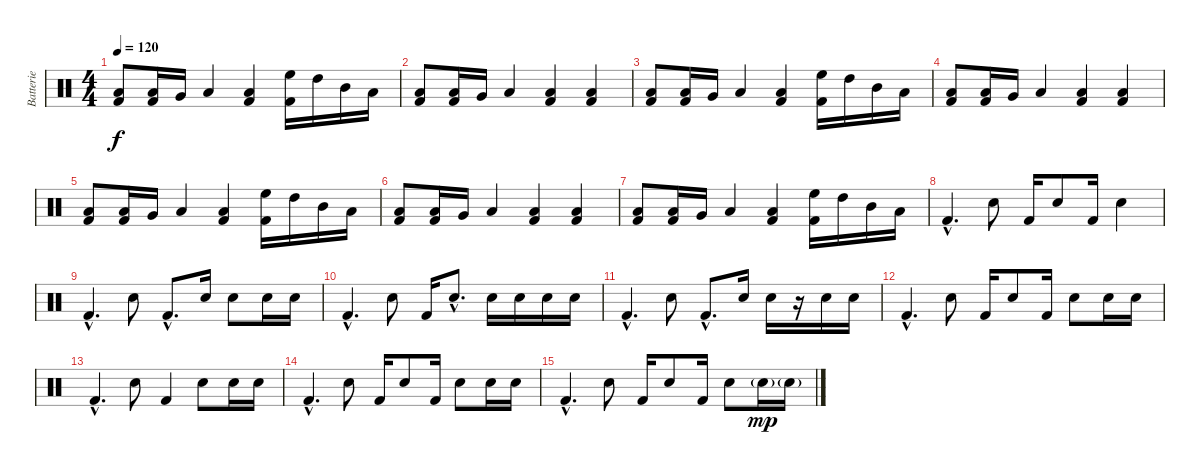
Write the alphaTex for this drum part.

\track ("Batterie" "Batterie") {instrument percussion}
\staff {score}
\articulation defaults
\ts (4 4)
\tempo 120
\clef neutral
\ks c
("Low Floor Tom (hit)" "Kick (hit) 2").8{dy f} ("Low Floor Tom (hit)" "Kick (hit) 2").16 "Very Low Tom (hit)".16 "Low Floor Tom (hit)".4 ("Low Floor Tom (hit)" "Kick (hit) 2").4 ("High Floor Tom (hit)" "Kick (hit) 2").16 "High Tom (hit)".16 "Mid Tom (hit)".16 "Low Tom (hit)".16 |
("Low Floor Tom (hit)" "Kick (hit) 2").8 ("Low Floor Tom (hit)" "Kick (hit) 2").16 "Very Low Tom (hit)".16 "Low Floor Tom (hit)".4 ("Low Floor Tom (hit)" "Kick (hit) 2").4 ("Low Floor Tom (hit)" "Kick (hit) 2").4 |
("Low Floor Tom (hit)" "Kick (hit) 2").8 ("Low Floor Tom (hit)" "Kick (hit) 2").16 "Very Low Tom (hit)".16 "Low Floor Tom (hit)".4 ("Low Floor Tom (hit)" "Kick (hit) 2").4 ("High Floor Tom (hit)" "Kick (hit) 2").16 "High Tom (hit)".16 "Mid Tom (hit)".16 "Low Tom (hit)".16 |
("Low Floor Tom (hit)" "Kick (hit) 2").8 ("Low Floor Tom (hit)" "Kick (hit) 2").16 "Very Low Tom (hit)".16 "Low Floor Tom (hit)".4 ("Low Floor Tom (hit)" "Kick (hit) 2").4 ("Low Floor Tom (hit)" "Kick (hit) 2").4 |
("Low Floor Tom (hit)" "Kick (hit) 2").8 ("Low Floor Tom (hit)" "Kick (hit) 2").16 "Very Low Tom (hit)".16 "Low Floor Tom (hit)".4 ("Low Floor Tom (hit)" "Kick (hit) 2").4 ("High Floor Tom (hit)" "Kick (hit) 2").16 "High Tom (hit)".16 "Mid Tom (hit)".16 "Low Tom (hit)".16 |
("Low Floor Tom (hit)" "Kick (hit) 2").8 ("Low Floor Tom (hit)" "Kick (hit) 2").16 "Very Low Tom (hit)".16 "Low Floor Tom (hit)".4 ("Low Floor Tom (hit)" "Kick (hit) 2").4 ("Low Floor Tom (hit)" "Kick (hit) 2").4 |
("Low Floor Tom (hit)" "Kick (hit) 2").8 ("Low Floor Tom (hit)" "Kick (hit) 2").16 "Very Low Tom (hit)".16 "Low Floor Tom (hit)".4 ("Low Floor Tom (hit)" "Kick (hit) 2").4 ("High Floor Tom (hit)" "Kick (hit) 2").16 "High Tom (hit)".16 "Mid Tom (hit)".16 "Low Tom (hit)".16 |
"Kick (hit) 2"{hac}.4{d} "Electric Snare (hit)".8 "Kick (hit) 2".16 "Electric Snare (hit)".8 "Kick (hit) 2".16 "Electric Snare (hit)".4 |
"Kick (hit) 2"{hac}.4{d} "Electric Snare (hit)".8 "Kick (hit) 2"{hac}.8{d} "Electric Snare (hit)".16 "Electric Snare (hit)".8 "Electric Snare (hit)".16 "Electric Snare (hit)".16 |
"Kick (hit) 2"{hac}.4{d} "Electric Snare (hit)".8 "Kick (hit) 2".16 "Electric Snare (hit)"{hac}.8{d} "Electric Snare (hit)".16 "Electric Snare (hit)".16 "Electric Snare (hit)".16 "Electric Snare (hit)".16 |
"Kick (hit) 2"{hac}.4{d} "Electric Snare (hit)".8 "Kick (hit) 2"{hac}.8{d} "Electric Snare (hit)".16 "Electric Snare (hit)".16 r.16 "Electric Snare (hit)".16 "Electric Snare (hit)".16 |
"Kick (hit) 2"{hac}.4{d} "Electric Snare (hit)".8 "Kick (hit) 2".16 "Electric Snare (hit)".8 "Kick (hit) 2".16 "Electric Snare (hit)".8 "Electric Snare (hit)".16 "Electric Snare (hit)".16 |
"Kick (hit) 2"{hac}.4{d} "Electric Snare (hit)".8 "Kick (hit) 2".4 "Electric Snare (hit)".8 "Electric Snare (hit)".16 "Electric Snare (hit)".16 |
"Kick (hit) 2"{hac}.4{d} "Electric Snare (hit)".8 "Kick (hit) 2".16 "Electric Snare (hit)".8 "Kick (hit) 2".16 "Electric Snare (hit)".8 "Electric Snare (hit)".16 "Electric Snare (hit)".16 |
"Kick (hit) 2"{hac}.4{d} "Electric Snare (hit)".8 "Kick (hit) 2".16 "Electric Snare (hit)".8 "Kick (hit) 2".16 "Electric Snare (hit)".8 "Electric Snare (hit)"{g}.16{dy mp} "Electric Snare (hit)"{g}.16
